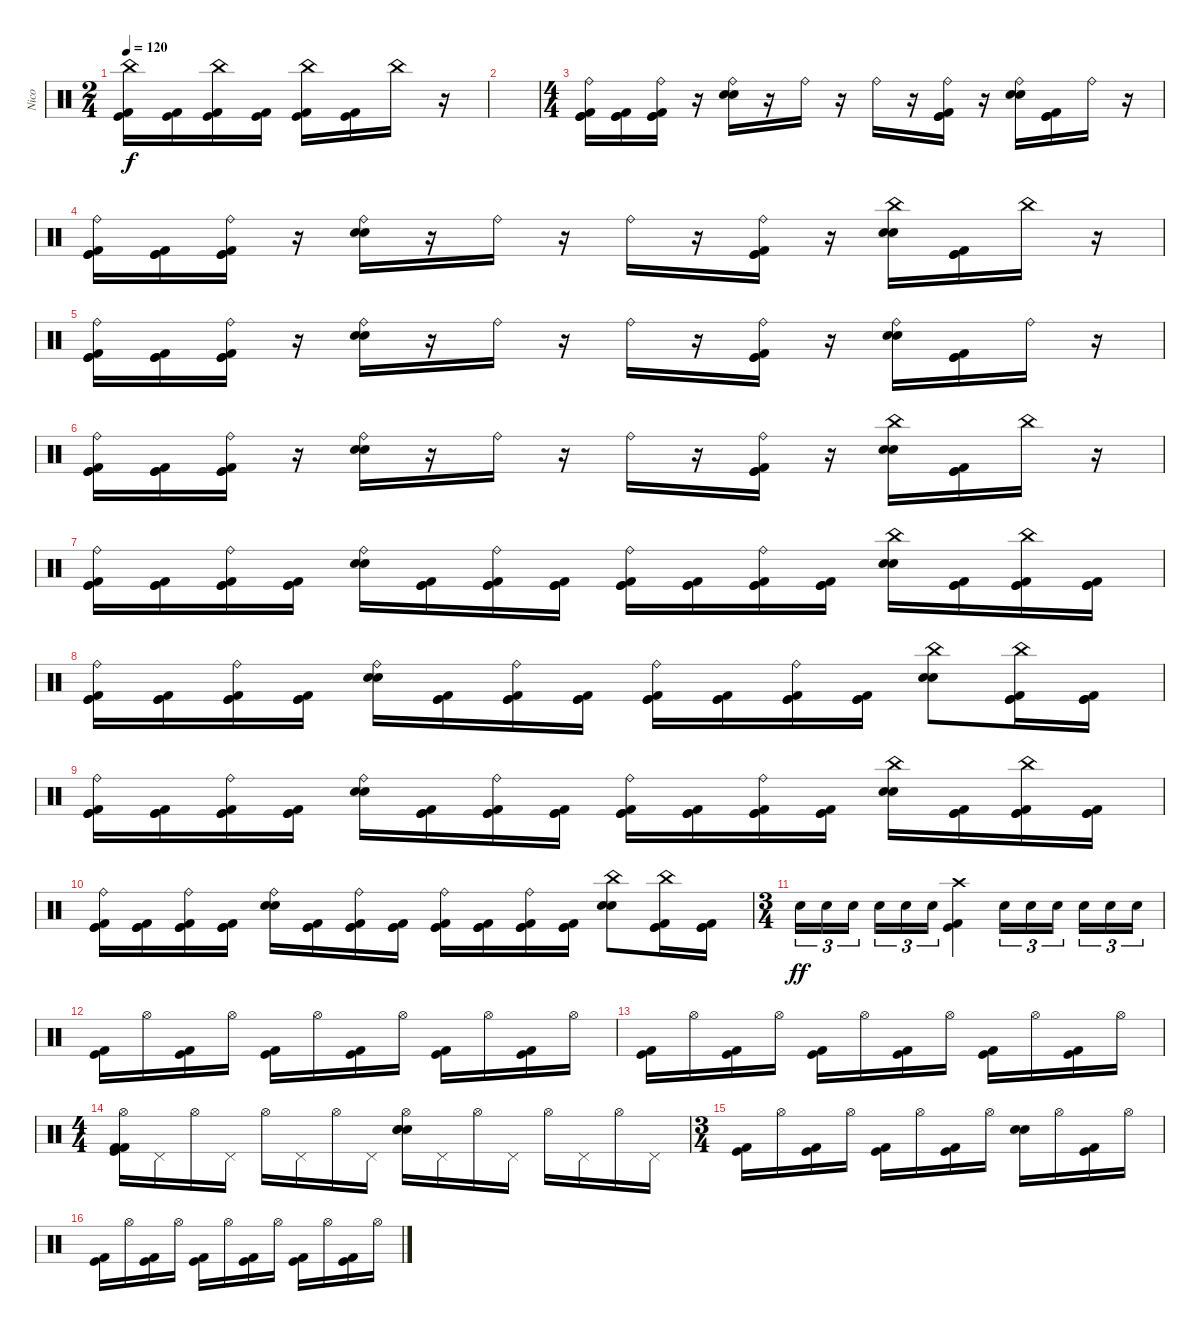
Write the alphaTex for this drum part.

\track ("Nico" "Nico") {instrument percussion}
\staff {score}
\articulation defaults
\ts (2 4)
\tempo 120
\clef neutral
\ks c
("China (hit)" "Kick (hit) 2" "Kick (hit)").16{dy f} ("Kick (hit) 2" "Kick (hit)").16 ("China (hit)" "Kick (hit)" "Kick (hit) 2").16 ("Kick (hit) 2" "Kick (hit)").16 ("China (hit)" "Kick (hit)" "Kick (hit) 2").16 ("Kick (hit) 2" "Kick (hit)").16 "China (hit)".16 r.16 |
|
\ts (4 4)
("Ride (bell)" "Kick (hit)" "Kick (hit) 2" "Kick (hit)").16 ("Kick (hit)" "Kick (hit)" "Kick (hit) 2").16 ("Ride (bell)" "Kick (hit)" "Kick (hit) 2" "Kick (hit)").16 r.16 ("Ride (bell)" "Snare (hit) 2" "Snare (hit) 2").16 r.16 "Ride (bell)".16 r.16 "Ride (bell)".16 r.16 ("Ride (bell)" "Kick (hit)" "Kick (hit) 2" "Kick (hit)").16 r.16 ("Ride (bell)" "Snare (hit) 2" "Snare (hit) 2").16 ("Kick (hit) 2" "Kick (hit)" "Kick (hit)").16 "Ride (bell)".16 r.16 |
("Ride (bell)" "Kick (hit)" "Kick (hit) 2" "Kick (hit)").16 ("Kick (hit)" "Kick (hit)" "Kick (hit) 2").16 ("Ride (bell)" "Kick (hit)" "Kick (hit) 2" "Kick (hit)").16 r.16 ("Ride (bell)" "Snare (hit) 2" "Snare (hit) 2").16 r.16 "Ride (bell)".16 r.16 "Ride (bell)".16 r.16 ("Ride (bell)" "Kick (hit)" "Kick (hit) 2" "Kick (hit)").16 r.16 ("China (hit)" "Snare (hit) 2" "Snare (hit) 2").16 ("Kick (hit) 2" "Kick (hit)" "Kick (hit)").16 "China (hit)".16 r.16 |
("Ride (bell)" "Kick (hit)" "Kick (hit) 2" "Kick (hit)").16 ("Kick (hit)" "Kick (hit)" "Kick (hit) 2").16 ("Ride (bell)" "Kick (hit)" "Kick (hit) 2" "Kick (hit)").16 r.16 ("Ride (bell)" "Snare (hit) 2" "Snare (hit) 2").16 r.16 "Ride (bell)".16 r.16 "Ride (bell)".16 r.16 ("Ride (bell)" "Kick (hit)" "Kick (hit) 2" "Kick (hit)").16 r.16 ("Ride (bell)" "Snare (hit) 2" "Snare (hit) 2").16 ("Kick (hit) 2" "Kick (hit)" "Kick (hit)").16 "Ride (bell)".16 r.16 |
("Ride (bell)" "Kick (hit)" "Kick (hit) 2" "Kick (hit)").16 ("Kick (hit)" "Kick (hit)" "Kick (hit) 2").16 ("Ride (bell)" "Kick (hit)" "Kick (hit) 2" "Kick (hit)").16 r.16 ("Ride (bell)" "Snare (hit) 2" "Snare (hit) 2").16 r.16 "Ride (bell)".16 r.16 "Ride (bell)".16 r.16 ("Ride (bell)" "Kick (hit)" "Kick (hit) 2" "Kick (hit)").16 r.16 ("China (hit)" "Snare (hit) 2" "Snare (hit) 2").16 ("Kick (hit) 2" "Kick (hit)" "Kick (hit)").16 "China (hit)".16 r.16 |
("Ride (bell)" "Kick (hit)" "Kick (hit) 2" "Kick (hit)").16 ("Kick (hit)" "Kick (hit)" "Kick (hit) 2").16 ("Ride (bell)" "Kick (hit)" "Kick (hit) 2" "Kick (hit)").16 ("Kick (hit)" "Kick (hit)" "Kick (hit) 2").16 ("Ride (bell)" "Snare (hit) 2" "Snare (hit) 2").16 ("Kick (hit) 2" "Kick (hit)" "Kick (hit)").16 ("Ride (bell)" "Kick (hit) 2" "Kick (hit)" "Kick (hit)").16 ("Kick (hit) 2" "Kick (hit)" "Kick (hit)").16 ("Ride (bell)" "Kick (hit) 2" "Kick (hit)" "Kick (hit)").16 ("Kick (hit) 2" "Kick (hit)" "Kick (hit)").16 ("Ride (bell)" "Kick (hit) 2" "Kick (hit)" "Kick (hit)").16 ("Kick (hit) 2" "Kick (hit)" "Kick (hit)").16 ("China (hit)" "Snare (hit) 2" "Snare (hit) 2").16 ("Kick (hit) 2" "Kick (hit)" "Kick (hit)").16 ("China (hit)" "Kick (hit) 2" "Kick (hit)" "Kick (hit)").16 ("Kick (hit) 2" "Kick (hit)" "Kick (hit)").16 |
("Ride (bell)" "Kick (hit)" "Kick (hit) 2" "Kick (hit)").16 ("Kick (hit)" "Kick (hit)" "Kick (hit) 2").16 ("Ride (bell)" "Kick (hit)" "Kick (hit) 2" "Kick (hit)").16 ("Kick (hit)" "Kick (hit)" "Kick (hit) 2").16 ("Ride (bell)" "Snare (hit) 2" "Snare (hit) 2").16 ("Kick (hit) 2" "Kick (hit)" "Kick (hit)").16 ("Ride (bell)" "Kick (hit) 2" "Kick (hit)" "Kick (hit)").16 ("Kick (hit) 2" "Kick (hit)" "Kick (hit)").16 ("Ride (bell)" "Kick (hit) 2" "Kick (hit)" "Kick (hit)").16 ("Kick (hit) 2" "Kick (hit)" "Kick (hit)").16 ("Ride (bell)" "Kick (hit) 2" "Kick (hit)" "Kick (hit)").16 ("Kick (hit) 2" "Kick (hit)" "Kick (hit)").16 ("China (hit)" "Snare (hit) 2" "Snare (hit) 2").8 ("China (hit)" "Kick (hit) 2" "Kick (hit)" "Kick (hit)").16 ("Kick (hit) 2" "Kick (hit)" "Kick (hit)").16 |
("Ride (bell)" "Kick (hit)" "Kick (hit) 2" "Kick (hit)").16 ("Kick (hit)" "Kick (hit)" "Kick (hit) 2").16 ("Ride (bell)" "Kick (hit)" "Kick (hit) 2" "Kick (hit)").16 ("Kick (hit)" "Kick (hit)" "Kick (hit) 2").16 ("Ride (bell)" "Snare (hit) 2" "Snare (hit) 2").16 ("Kick (hit) 2" "Kick (hit)" "Kick (hit)").16 ("Ride (bell)" "Kick (hit) 2" "Kick (hit)" "Kick (hit)").16 ("Kick (hit) 2" "Kick (hit)" "Kick (hit)").16 ("Ride (bell)" "Kick (hit) 2" "Kick (hit)" "Kick (hit)").16 ("Kick (hit) 2" "Kick (hit)" "Kick (hit)").16 ("Ride (bell)" "Kick (hit) 2" "Kick (hit)" "Kick (hit)").16 ("Kick (hit) 2" "Kick (hit)" "Kick (hit)").16 ("China (hit)" "Snare (hit) 2" "Snare (hit) 2").16 ("Kick (hit) 2" "Kick (hit)" "Kick (hit)").16 ("China (hit)" "Kick (hit) 2" "Kick (hit)" "Kick (hit)").16 ("Kick (hit) 2" "Kick (hit)" "Kick (hit)").16 |
("Ride (bell)" "Kick (hit)" "Kick (hit) 2" "Kick (hit)").16 ("Kick (hit)" "Kick (hit)" "Kick (hit) 2").16 ("Ride (bell)" "Kick (hit)" "Kick (hit) 2" "Kick (hit)").16 ("Kick (hit)" "Kick (hit)" "Kick (hit) 2").16 ("Ride (bell)" "Snare (hit) 2" "Snare (hit) 2").16 ("Kick (hit) 2" "Kick (hit)" "Kick (hit)").16 ("Ride (bell)" "Kick (hit) 2" "Kick (hit)" "Kick (hit)").16 ("Kick (hit) 2" "Kick (hit)" "Kick (hit)").16 ("Ride (bell)" "Kick (hit) 2" "Kick (hit)" "Kick (hit)").16 ("Kick (hit) 2" "Kick (hit)" "Kick (hit)").16 ("Ride (bell)" "Kick (hit) 2" "Kick (hit)" "Kick (hit)").16 ("Kick (hit) 2" "Kick (hit)" "Kick (hit)").16 ("China (hit)" "Snare (hit) 2" "Snare (hit) 2").8 ("China (hit)" "Kick (hit) 2" "Kick (hit)" "Kick (hit)").16 ("Kick (hit) 2" "Kick (hit)" "Kick (hit)").16 |
\ts (3 4)
"Electric Snare (hit)".16{tu (3 2) dy ff} "Electric Snare (hit)".16{tu (3 2)} "Electric Snare (hit)".16{tu (3 2)} "Electric Snare (hit)".16{tu (3 2)} "Electric Snare (hit)".16{tu (3 2)} "Electric Snare (hit)".16{tu (3 2)} ("Crash high (hit)" "Kick (hit) 2" "Kick (hit)").4 "Electric Snare (hit)".16{tu (3 2)} "Electric Snare (hit)".16{tu (3 2)} "Electric Snare (hit)".16{tu (3 2)} "Electric Snare (hit)".16{tu (3 2)} "Electric Snare (hit)".16{tu (3 2)} "Electric Snare (hit)".16{tu (3 2)} |
("Kick (hit) 2" "Kick (hit)").16 "Hi-Hat (open)".16 ("Kick (hit) 2" "Kick (hit)").16 "Hi-Hat (open)".16 ("Kick (hit)" "Kick (hit) 2").16 "Hi-Hat (open)".16 ("Kick (hit) 2" "Kick (hit)").16 "Hi-Hat (open)".16 ("Kick (hit) 2" "Kick (hit)").16 "Hi-Hat (open)".16 ("Kick (hit)" "Kick (hit) 2").16 "Hi-Hat (open)".16 |
("Kick (hit) 2" "Kick (hit)").16 "Hi-Hat (open)".16 ("Kick (hit) 2" "Kick (hit)").16 "Hi-Hat (open)".16 ("Kick (hit)" "Kick (hit) 2").16 "Hi-Hat (open)".16 ("Kick (hit) 2" "Kick (hit)").16 "Hi-Hat (open)".16 ("Kick (hit) 2" "Kick (hit)").16 "Hi-Hat (open)".16 ("Kick (hit)" "Kick (hit) 2").16 "Hi-Hat (open)".16 |
\ts (4 4)
("Hi-Hat (open)" "Kick (hit) 2" "Kick (hit) 2" "Kick (hit)").16 "Pedal Hi-Hat (hit)".16 "Hi-Hat (open)".16 "Pedal Hi-Hat (hit)".16 "Hi-Hat (open)".16 "Pedal Hi-Hat (hit)".16 "Hi-Hat (open)".16 "Pedal Hi-Hat (hit)".16 ("Hi-Hat (open)" "Electric Snare (hit)" "Electric Snare (hit)" "Electric Snare (hit)").16 "Pedal Hi-Hat (hit)".16 "Hi-Hat (open)".16 "Pedal Hi-Hat (hit)".16 "Hi-Hat (open)".16 "Pedal Hi-Hat (hit)".16 "Hi-Hat (open)".16 "Pedal Hi-Hat (hit)".16 |
\ts (3 4)
("Kick (hit) 2" "Kick (hit)").16 "Hi-Hat (open)".16 ("Kick (hit) 2" "Kick (hit)").16 "Hi-Hat (open)".16 ("Kick (hit)" "Kick (hit) 2").16 "Hi-Hat (open)".16 ("Kick (hit) 2" "Kick (hit)").16 "Hi-Hat (open)".16 ("Electric Snare (hit)" "Electric Snare (hit)").16 "Hi-Hat (open)".16 ("Kick (hit)" "Kick (hit) 2").16 "Hi-Hat (open)".16 |
("Kick (hit) 2" "Kick (hit)").16 "Hi-Hat (open)".16 ("Kick (hit) 2" "Kick (hit)").16 "Hi-Hat (open)".16 ("Kick (hit)" "Kick (hit) 2").16 "Hi-Hat (open)".16 ("Kick (hit) 2" "Kick (hit)").16 "Hi-Hat (open)".16 ("Kick (hit) 2" "Kick (hit)").16 "Hi-Hat (open)".16 ("Kick (hit)" "Kick (hit) 2").16 "Hi-Hat (open)".16
